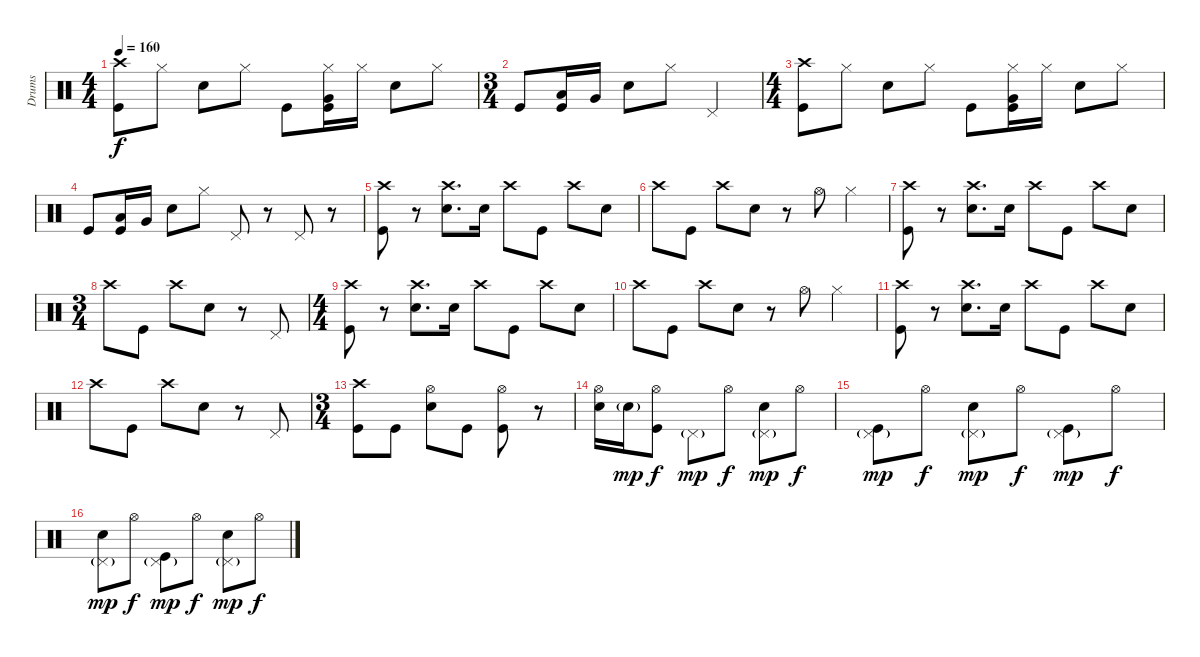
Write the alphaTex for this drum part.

\track ("Drums" "Drums") {instrument percussion}
\staff {score}
\articulation defaults
\ts (4 4)
\tempo 160
\clef neutral
\ks c
("Kick (hit)" "Crash high (hit)").8{dy f} "Hi-Hat (closed)".8 "Snare (hit) 2".8 "Hi-Hat (closed)".8 "Kick (hit)".8 ("Kick (hit)" "Very Low Tom (hit)" "Hi-Hat (closed)").16 "Hi-Hat (closed)".16 "Snare (hit) 2".8 "Hi-Hat (closed)".8 |
\ts (3 4)
"Kick (hit)".8 ("Kick (hit)" "Low Tom (hit)").16 "Very Low Tom (hit)".16 "Snare (hit) 2".8 "Hi-Hat (closed)".8 "Pedal Hi-Hat (hit)".4 |
\ts (4 4)
("Kick (hit)" "Crash high (hit)").8 "Hi-Hat (closed)".8 "Snare (hit) 2".8 "Hi-Hat (closed)".8 "Kick (hit)".8 ("Kick (hit)" "Very Low Tom (hit)" "Hi-Hat (closed)").16 "Hi-Hat (closed)".16 "Snare (hit) 2".8 "Hi-Hat (closed)".8 |
"Kick (hit)".8 ("Kick (hit)" "Low Tom (hit)").16 "Very Low Tom (hit)".16 "Snare (hit) 2".8 "Hi-Hat (closed)".8 "Pedal Hi-Hat (hit)".8 r.8 "Pedal Hi-Hat (hit)".8 r.8 |
("Kick (hit)" "Crash high (hit)").8 r.8 ("Snare (hit) 2" "Crash high (hit)").8{d} "Snare (hit) 2".16 "Crash high (hit)".8 "Kick (hit)".8 "Crash high (hit)".8 "Snare (hit) 2".8 |
"Crash high (hit)".8 "Kick (hit)".8 "Crash high (hit)".8 "Snare (hit) 2".8 r.8 "Hi-Hat (open)".8 "Hi-Hat (closed)".4 |
("Kick (hit)" "Crash high (hit)").8 r.8 ("Snare (hit) 2" "Crash high (hit)").8{d} "Snare (hit) 2".16 "Crash high (hit)".8 "Kick (hit)".8 "Crash high (hit)".8 "Snare (hit) 2".8 |
\ts (3 4)
"Crash high (hit)".8 "Kick (hit)".8 "Crash high (hit)".8 "Snare (hit) 2".8 r.8 "Pedal Hi-Hat (hit)".8 |
\ts (4 4)
("Kick (hit)" "Crash high (hit)").8 r.8 ("Snare (hit) 2" "Crash high (hit)").8{d} "Snare (hit) 2".16 "Crash high (hit)".8 "Kick (hit)".8 "Crash high (hit)".8 "Snare (hit) 2".8 |
"Crash high (hit)".8 "Kick (hit)".8 "Crash high (hit)".8 "Snare (hit) 2".8 r.8 "Hi-Hat (open)".8 "Hi-Hat (closed)".4 |
("Kick (hit)" "Crash high (hit)").8 r.8 ("Snare (hit) 2" "Crash high (hit)").8{d} "Snare (hit) 2".16 "Crash high (hit)".8 "Kick (hit)".8 "Crash high (hit)".8 "Snare (hit) 2".8 |
"Crash high (hit)".8 "Kick (hit)".8 "Crash high (hit)".8 "Snare (hit) 2".8 r.8 "Pedal Hi-Hat (hit)".8 |
\ts (3 4)
("Kick (hit)" "Crash high (hit)").8 "Kick (hit)".8 ("Snare (hit) 2" "Hi-Hat (open)").8 "Kick (hit)".8 ("Kick (hit)" "Hi-Hat (open)").8 r.8 |
("Snare (hit) 2" "Hi-Hat (open)").16 "Snare (hit) 2"{g}.16{dy mp} ("Kick (hit)" "Hi-Hat (open)").8{dy f} "Pedal Hi-Hat (hit)"{g}.8{dy mp} "Hi-Hat (open)".8{dy f} ("Snare (hit) 2" "Pedal Hi-Hat (hit)"{g}).8{dy mp} "Hi-Hat (open)".8{dy f} |
("Kick (hit)" "Pedal Hi-Hat (hit)"{g}).8{dy mp} "Hi-Hat (open)".8{dy f} ("Snare (hit) 2" "Pedal Hi-Hat (hit)"{g}).8{dy mp} "Hi-Hat (open)".8{dy f} ("Kick (hit)" "Pedal Hi-Hat (hit)"{g}).8{dy mp} "Hi-Hat (open)".8{dy f} |
("Snare (hit) 2" "Pedal Hi-Hat (hit)"{g}).8{dy mp} "Hi-Hat (open)".8{dy f} ("Kick (hit)" "Pedal Hi-Hat (hit)"{g}).8{dy mp} "Hi-Hat (open)".8{dy f} ("Snare (hit) 2" "Pedal Hi-Hat (hit)"{g}).8{dy mp} "Hi-Hat (open)".8{dy f}
